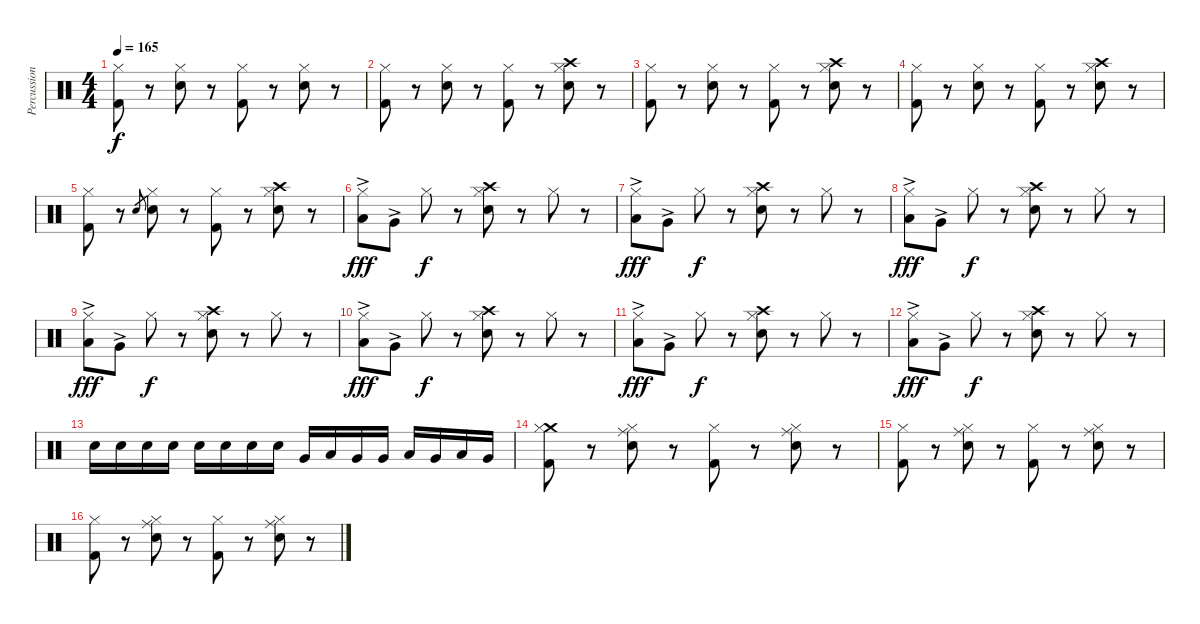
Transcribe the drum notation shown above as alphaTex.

\track ("Percussions" "Percussion") {instrument percussion}
\staff {score}
\articulation defaults
\ts (4 4)
\tempo 165
\clef neutral
\ks c
("Kick (hit) 2" "Hi-Hat (closed)").8{dy f} r.8 ("Electric Snare (hit)" "Hi-Hat (closed)").8 r.8 ("Kick (hit) 2" "Hi-Hat (closed)").8 r.8 ("Electric Snare (hit)" "Hi-Hat (closed)").8 r.8 |
("Kick (hit) 2" "Hi-Hat (closed)").8 r.8 ("Electric Snare (hit)" "Hi-Hat (closed)").8 r.8 ("Kick (hit) 2" "Hi-Hat (closed)").8 r.8 ("Electric Snare (hit)" "Crash high (hit)" "Hi-Hat (closed)").8 r.8 |
("Kick (hit) 2" "Hi-Hat (closed)").8 r.8 ("Electric Snare (hit)" "Hi-Hat (closed)").8 r.8 ("Kick (hit) 2" "Hi-Hat (closed)").8 r.8 ("Electric Snare (hit)" "Crash high (hit)" "Hi-Hat (closed)").8 r.8 |
("Kick (hit) 2" "Hi-Hat (closed)").8 r.8 ("Electric Snare (hit)" "Hi-Hat (closed)").8 r.8 ("Kick (hit) 2" "Hi-Hat (closed)").8 r.8 ("Electric Snare (hit)" "Crash high (hit)" "Hi-Hat (closed)").8 r.8 |
("Kick (hit) 2" "Hi-Hat (closed)").8 r.8 "Electric Snare (hit)".8{gr} ("Electric Snare (hit)" "Hi-Hat (closed)").8 r.8 ("Kick (hit) 2" "Hi-Hat (closed)").8 r.8 ("Electric Snare (hit)" "Crash high (hit)" "Hi-Hat (closed)").8 r.8 |
("Low Tom (hit)"{ac} "Hi-Hat (closed)").8{dy fff} "Very Low Tom (hit)"{ac}.8 "Hi-Hat (closed)".8{dy f} r.8 ("Crash high (hit)" "Electric Snare (hit)" "Hi-Hat (closed)").8 r.8 "Hi-Hat (closed)".8 r.8 |
("Low Tom (hit)"{ac} "Hi-Hat (closed)").8{dy fff} "Very Low Tom (hit)"{ac}.8 "Hi-Hat (closed)".8{dy f} r.8 ("Crash high (hit)" "Electric Snare (hit)" "Hi-Hat (closed)").8 r.8 "Hi-Hat (closed)".8 r.8 |
("Low Tom (hit)"{ac} "Hi-Hat (closed)").8{dy fff} "Very Low Tom (hit)"{ac}.8 "Hi-Hat (closed)".8{dy f} r.8 ("Crash high (hit)" "Electric Snare (hit)" "Hi-Hat (closed)").8 r.8 "Hi-Hat (closed)".8 r.8 |
("Low Tom (hit)"{ac} "Hi-Hat (closed)").8{dy fff} "Very Low Tom (hit)"{ac}.8 "Hi-Hat (closed)".8{dy f} r.8 ("Crash high (hit)" "Electric Snare (hit)" "Hi-Hat (closed)").8 r.8 "Hi-Hat (closed)".8 r.8 |
("Low Tom (hit)"{ac} "Hi-Hat (closed)").8{dy fff} "Very Low Tom (hit)"{ac}.8 "Hi-Hat (closed)".8{dy f} r.8 ("Crash high (hit)" "Electric Snare (hit)" "Hi-Hat (closed)").8 r.8 "Hi-Hat (closed)".8 r.8 |
("Low Tom (hit)"{ac} "Hi-Hat (closed)").8{dy fff} "Very Low Tom (hit)"{ac}.8 "Hi-Hat (closed)".8{dy f} r.8 ("Crash high (hit)" "Electric Snare (hit)" "Hi-Hat (closed)").8 r.8 "Hi-Hat (closed)".8 r.8 |
("Low Tom (hit)"{ac} "Hi-Hat (closed)").8{dy fff} "Very Low Tom (hit)"{ac}.8 "Hi-Hat (closed)".8{dy f} r.8 ("Crash high (hit)" "Electric Snare (hit)" "Hi-Hat (closed)").8 r.8 "Hi-Hat (closed)".8 r.8 |
"Electric Snare (hit)".16 "Electric Snare (hit)".16 "Electric Snare (hit)".16 "Electric Snare (hit)".16 "Electric Snare (hit)".16 "Electric Snare (hit)".16 "Electric Snare (hit)".16 "Electric Snare (hit)".16 "Very Low Tom (hit)".16 "Low Tom (hit)".16 "Very Low Tom (hit)".16 "Very Low Tom (hit)".16 "Low Tom (hit)".16 "Very Low Tom (hit)".16 "Low Tom (hit)".16 "Very Low Tom (hit)".16 |
("Kick (hit) 2" "Crash medium (hit)" "Hi-Hat (closed)").8 r.8 ("Electric Snare (hit)" "Ride (middle)" "Hi-Hat (closed)").8 r.8 ("Kick (hit) 2" "Hi-Hat (closed)").8 r.8 ("Electric Snare (hit)" "Ride (middle)" "Hi-Hat (closed)").8 r.8 |
("Kick (hit) 2" "Hi-Hat (closed)").8 r.8 ("Electric Snare (hit)" "Ride (middle)" "Hi-Hat (closed)").8 r.8 ("Kick (hit) 2" "Hi-Hat (closed)").8 r.8 ("Electric Snare (hit)" "Ride (middle)" "Hi-Hat (closed)").8 r.8 |
("Kick (hit) 2" "Hi-Hat (closed)").8 r.8 ("Electric Snare (hit)" "Ride (middle)" "Hi-Hat (closed)").8 r.8 ("Kick (hit) 2" "Hi-Hat (closed)").8 r.8 ("Electric Snare (hit)" "Ride (middle)" "Hi-Hat (closed)").8 r.8
